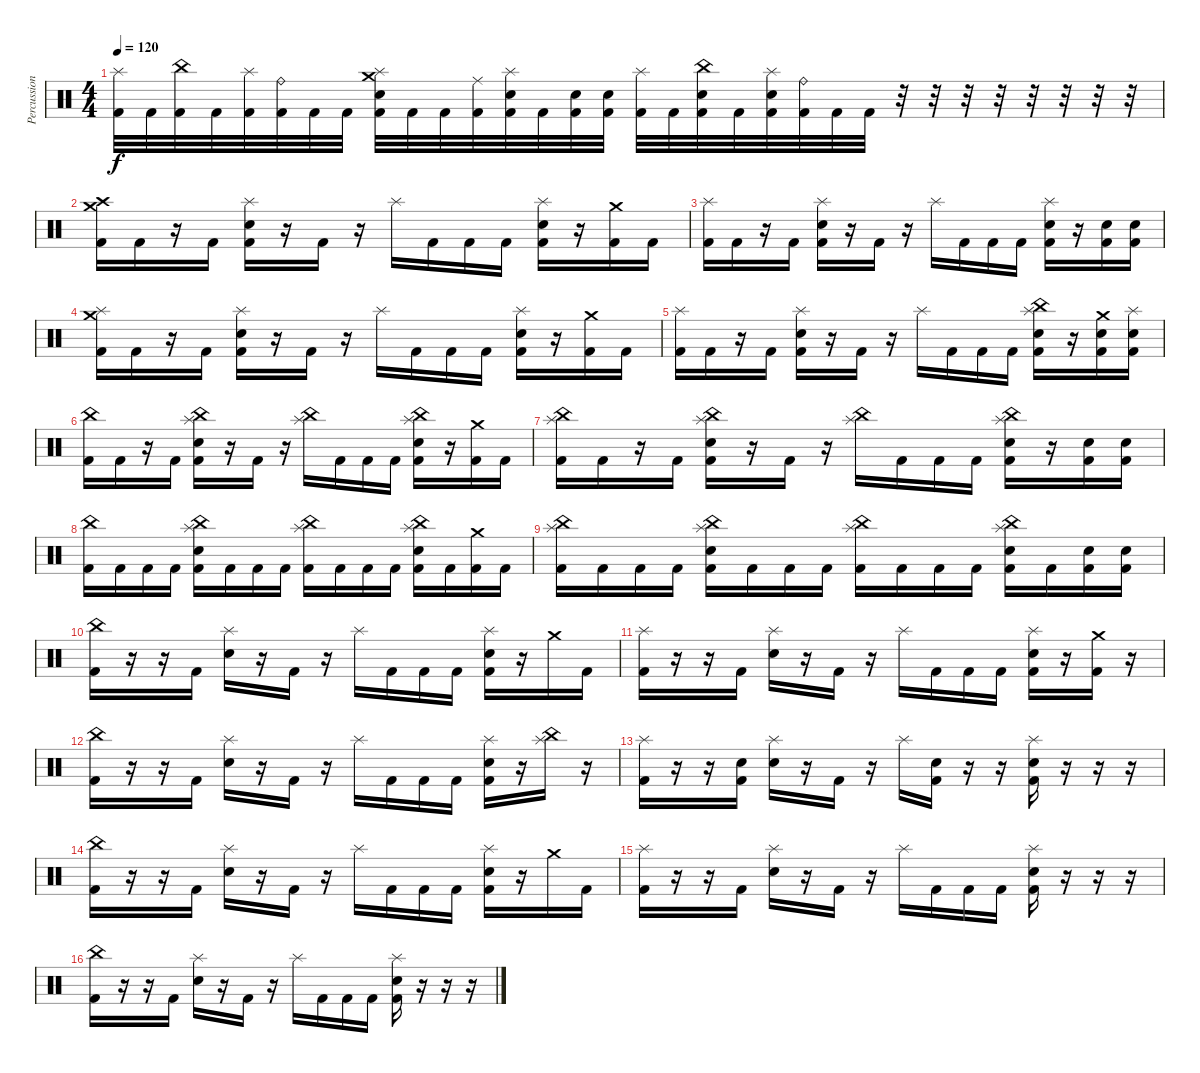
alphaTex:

\track ("Percussion" "Percussion") {instrument percussion}
\staff {score}
\articulation defaults
\ts (4 4)
\tempo 120
\clef neutral
\ks c
("Splash (hit)" "Kick (hit) 2").32{dy f} "Kick (hit) 2".32 ("China (hit)" "Kick (hit) 2").32 "Kick (hit) 2".32 ("Splash (hit)" "Kick (hit) 2").32 ("Ride (bell)" "Kick (hit) 2").32 "Kick (hit) 2".32 "Kick (hit) 2".32 ("Crash medium (hit)" "Splash (hit)" "Electric Snare (hit)" "Kick (hit) 2").32 "Kick (hit) 2".32 "Kick (hit) 2".32 ("Ride (middle)" "Kick (hit) 2").32 ("Splash (hit)" "Electric Snare (hit)" "Kick (hit) 2").32 "Kick (hit) 2".32 ("Electric Snare (hit)" "Kick (hit) 2").32 ("Electric Snare (hit)" "Kick (hit) 2").32 ("Splash (hit)" "Kick (hit) 2").32 "Kick (hit) 2".32 ("China (hit)" "Electric Snare (hit)" "Kick (hit) 2").32 "Kick (hit) 2".32 ("Splash (hit)" "Electric Snare (hit)" "Kick (hit) 2").32 ("Ride (bell)" "Kick (hit) 2").32 "Kick (hit) 2".32 "Kick (hit) 2".32 r.32 r.32 r.32 r.32 r.32 r.32 r.32 r.32 |
("Crash medium (hit)" "Crash high (hit)" "Kick (hit) 2").16 "Kick (hit) 2".16 r.16 "Kick (hit) 2".16 ("Splash (hit)" "Electric Snare (hit)" "Kick (hit) 2").16 r.16 "Kick (hit) 2".16 r.16 "Splash (hit)".16 "Kick (hit) 2".16 "Kick (hit) 2".16 "Kick (hit) 2".16 ("Splash (hit)" "Electric Snare (hit)" "Kick (hit) 2").16 r.16 ("Crash medium (hit)" "Kick (hit) 2").16 "Kick (hit) 2".16 |
("Splash (hit)" "Kick (hit) 2").16 "Kick (hit) 2".16 r.16 "Kick (hit) 2".16 ("Splash (hit)" "Electric Snare (hit)" "Kick (hit) 2").16 r.16 "Kick (hit) 2".16 r.16 "Splash (hit)".16 "Kick (hit) 2".16 "Kick (hit) 2".16 "Kick (hit) 2".16 ("Splash (hit)" "Electric Snare (hit)" "Kick (hit) 2").16 r.16 ("Electric Snare (hit)" "Kick (hit) 2").16 ("Electric Snare (hit)" "Kick (hit) 2").16 |
("Splash (hit)" "Crash medium (hit)" "Kick (hit) 2").16 "Kick (hit) 2".16 r.16 "Kick (hit) 2".16 ("Splash (hit)" "Electric Snare (hit)" "Kick (hit) 2").16 r.16 "Kick (hit) 2".16 r.16 "Splash (hit)".16 "Kick (hit) 2".16 "Kick (hit) 2".16 "Kick (hit) 2".16 ("Splash (hit)" "Electric Snare (hit)" "Kick (hit) 2").16 r.16 ("Crash medium (hit)" "Kick (hit) 2").16 "Kick (hit) 2".16 |
("Splash (hit)" "Kick (hit) 2").16 "Kick (hit) 2".16 r.16 "Kick (hit) 2".16 ("Splash (hit)" "Electric Snare (hit)" "Kick (hit) 2").16 r.16 "Kick (hit) 2".16 r.16 "Splash (hit)".16 "Kick (hit) 2".16 "Kick (hit) 2".16 "Kick (hit) 2".16 ("China (hit)" "Splash (hit)" "Electric Snare (hit)" "Kick (hit) 2").16 r.16 ("Crash medium (hit)" "Electric Snare (hit)" "Kick (hit) 2").16 ("Splash (hit)" "Electric Snare (hit)" "Kick (hit) 2").16 |
("China (hit)" "Kick (hit) 2").16 "Kick (hit) 2".16 r.16 "Kick (hit) 2".16 ("China (hit)" "Splash (hit)" "Electric Snare (hit)" "Kick (hit) 2").16 r.16 "Kick (hit) 2".16 r.16 ("China (hit)" "Splash (hit)").16 "Kick (hit) 2".16 "Kick (hit) 2".16 "Kick (hit) 2".16 ("China (hit)" "Splash (hit)" "Electric Snare (hit)" "Kick (hit) 2").16 r.16 ("Crash medium (hit)" "Kick (hit) 2").16 "Kick (hit) 2".16 |
("China (hit)" "Splash (hit)" "Kick (hit) 2").16 "Kick (hit) 2".16 r.16 "Kick (hit) 2".16 ("China (hit)" "Splash (hit)" "Electric Snare (hit)" "Kick (hit) 2").16 r.16 "Kick (hit) 2".16 r.16 ("China (hit)" "Splash (hit)").16 "Kick (hit) 2".16 "Kick (hit) 2".16 "Kick (hit) 2".16 ("China (hit)" "Splash (hit)" "Electric Snare (hit)" "Kick (hit) 2").16 r.16 ("Electric Snare (hit)" "Kick (hit) 2").16 ("Electric Snare (hit)" "Kick (hit) 2").16 |
("China (hit)" "Kick (hit) 2").16 "Kick (hit) 2".16 "Kick (hit) 2".16 "Kick (hit) 2".16 ("China (hit)" "Splash (hit)" "Electric Snare (hit)" "Kick (hit) 2").16 "Kick (hit) 2".16 "Kick (hit) 2".16 "Kick (hit) 2".16 ("China (hit)" "Splash (hit)" "Kick (hit) 2").16 "Kick (hit) 2".16 "Kick (hit) 2".16 "Kick (hit) 2".16 ("China (hit)" "Splash (hit)" "Electric Snare (hit)" "Kick (hit) 2").16 "Kick (hit) 2".16 ("Crash medium (hit)" "Kick (hit) 2").16 "Kick (hit) 2".16 |
("China (hit)" "Splash (hit)" "Kick (hit) 2").16 "Kick (hit) 2".16 "Kick (hit) 2".16 "Kick (hit) 2".16 ("China (hit)" "Splash (hit)" "Electric Snare (hit)" "Kick (hit) 2").16 "Kick (hit) 2".16 "Kick (hit) 2".16 "Kick (hit) 2".16 ("China (hit)" "Splash (hit)" "Kick (hit) 2").16 "Kick (hit) 2".16 "Kick (hit) 2".16 "Kick (hit) 2".16 ("China (hit)" "Splash (hit)" "Electric Snare (hit)" "Kick (hit) 2").16 "Kick (hit) 2".16 ("Electric Snare (hit)" "Kick (hit) 2").16 ("Electric Snare (hit)" "Kick (hit) 2").16 |
("China (hit)" "Kick (hit) 2").16 r.16 r.16 "Kick (hit) 2".16 ("Splash (hit)" "Electric Snare (hit)").16 r.16 "Kick (hit) 2".16 r.16 "Splash (hit)".16 "Kick (hit) 2".16 "Kick (hit) 2".16 "Kick (hit) 2".16 ("Splash (hit)" "Electric Snare (hit)" "Kick (hit) 2").16 r.16 "Crash medium (hit)".16 "Kick (hit) 2".16 |
("Splash (hit)" "Kick (hit) 2").16 r.16 r.16 "Kick (hit) 2".16 ("Splash (hit)" "Electric Snare (hit)").16 r.16 "Kick (hit) 2".16 r.16 "Splash (hit)".16 "Kick (hit) 2".16 "Kick (hit) 2".16 "Kick (hit) 2".16 ("Splash (hit)" "Electric Snare (hit)" "Kick (hit) 2").16 r.16 ("Crash medium (hit)" "Kick (hit) 2").16 r.16 |
("China (hit)" "Kick (hit) 2").16 r.16 r.16 "Kick (hit) 2".16 ("Splash (hit)" "Electric Snare (hit)").16 r.16 "Kick (hit) 2".16 r.16 "Splash (hit)".16 "Kick (hit) 2".16 "Kick (hit) 2".16 "Kick (hit) 2".16 ("Splash (hit)" "Electric Snare (hit)" "Kick (hit) 2").16 r.16 ("China (hit)" "Splash (hit)").16 r.16 |
("Splash (hit)" "Kick (hit) 2").16 r.16 r.16 ("Electric Snare (hit)" "Kick (hit) 2").16 ("Splash (hit)" "Electric Snare (hit)").16 r.16 "Kick (hit) 2".16 r.16 "Splash (hit)".16 ("Electric Snare (hit)" "Kick (hit) 2").16 r.16 r.16 ("Splash (hit)" "Electric Snare (hit)" "Kick (hit) 2").16 r.16 r.16 r.16 |
("China (hit)" "Kick (hit) 2").16 r.16 r.16 "Kick (hit) 2".16 ("Splash (hit)" "Electric Snare (hit)").16 r.16 "Kick (hit) 2".16 r.16 "Splash (hit)".16 "Kick (hit) 2".16 "Kick (hit) 2".16 "Kick (hit) 2".16 ("Splash (hit)" "Electric Snare (hit)" "Kick (hit) 2").16 r.16 "Crash medium (hit)".16 "Kick (hit) 2".16 |
("Splash (hit)" "Kick (hit) 2").16 r.16 r.16 "Kick (hit) 2".16 ("Splash (hit)" "Electric Snare (hit)").16 r.16 "Kick (hit) 2".16 r.16 "Splash (hit)".16 "Kick (hit) 2".16 "Kick (hit) 2".16 "Kick (hit) 2".16 ("Splash (hit)" "Electric Snare (hit)" "Kick (hit) 2").16 r.16 r.16 r.16 |
("China (hit)" "Kick (hit) 2").16 r.16 r.16 "Kick (hit) 2".16 ("Splash (hit)" "Electric Snare (hit)").16 r.16 "Kick (hit) 2".16 r.16 "Splash (hit)".16 "Kick (hit) 2".16 "Kick (hit) 2".16 "Kick (hit) 2".16 ("Splash (hit)" "Electric Snare (hit)" "Kick (hit) 2").16 r.16 r.16 r.16
